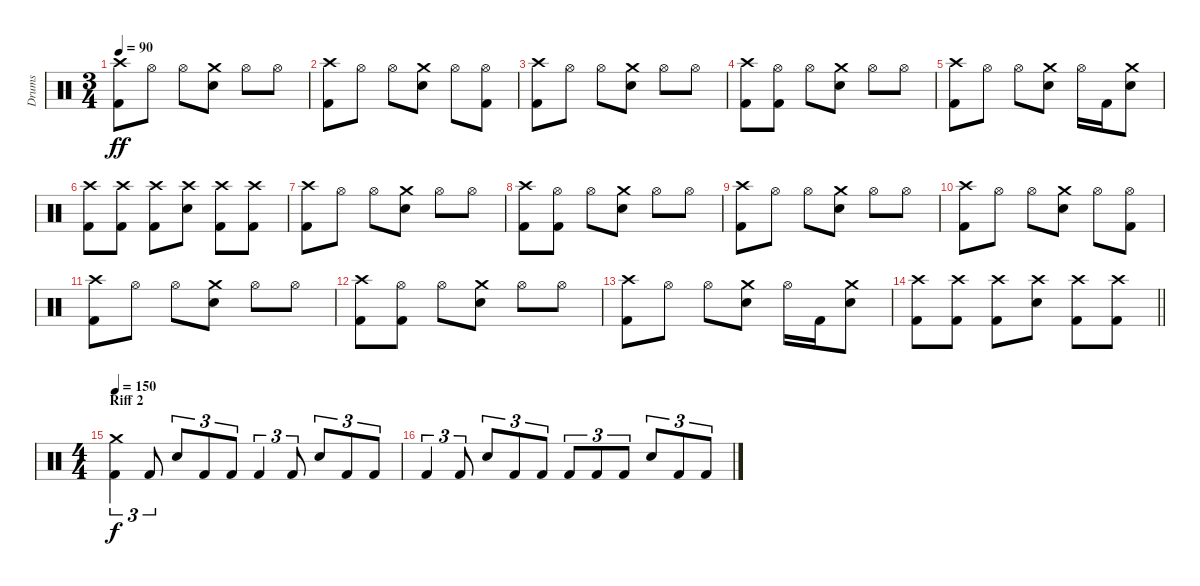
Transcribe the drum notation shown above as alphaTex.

\track ("Drums" "Drums") {instrument percussion}
\staff {score}
\articulation defaults
\ts (3 4)
\tempo 90
\clef neutral
\ks c
("Crash high (hit)" "Kick (hit) 2").8{dy ff} "Hi-Hat (open)".8 "Hi-Hat (open)".8 ("Crash medium (hit)" "Electric Snare (hit)").8 "Hi-Hat (open)".8 "Hi-Hat (open)".8 |
("Crash high (hit)" "Kick (hit) 2").8 "Hi-Hat (open)".8 "Hi-Hat (open)".8 ("Crash medium (hit)" "Electric Snare (hit)").8 "Hi-Hat (open)".8 ("Hi-Hat (open)" "Kick (hit) 2").8 |
("Crash high (hit)" "Kick (hit) 2").8 "Hi-Hat (open)".8 "Hi-Hat (open)".8 ("Crash medium (hit)" "Electric Snare (hit)").8 "Hi-Hat (open)".8 "Hi-Hat (open)".8 |
("Crash high (hit)" "Kick (hit) 2").8 ("Hi-Hat (open)" "Kick (hit) 2").8 "Hi-Hat (open)".8 ("Crash medium (hit)" "Electric Snare (hit)").8 "Hi-Hat (open)".8 "Hi-Hat (open)".8 |
("Crash high (hit)" "Kick (hit) 2").8 "Hi-Hat (open)".8 "Hi-Hat (open)".8 ("Crash medium (hit)" "Electric Snare (hit)").8 "Hi-Hat (open)".16 "Kick (hit) 2".16 ("Crash medium (hit)" "Electric Snare (hit)").8 |
("Crash high (hit)" "Kick (hit) 2").8 ("Crash high (hit)" "Kick (hit) 2").8 ("Crash high (hit)" "Kick (hit) 2").8 ("Crash high (hit)" "Electric Snare (hit)").8 ("Crash high (hit)" "Kick (hit) 2").8 ("Crash high (hit)" "Kick (hit) 2").8 |
("Crash high (hit)" "Kick (hit) 2").8 "Hi-Hat (open)".8 "Hi-Hat (open)".8 ("Crash medium (hit)" "Electric Snare (hit)").8 "Hi-Hat (open)".8 "Hi-Hat (open)".8 |
("Crash high (hit)" "Kick (hit) 2").8 ("Hi-Hat (open)" "Kick (hit) 2").8 "Hi-Hat (open)".8 ("Crash medium (hit)" "Electric Snare (hit)").8 "Hi-Hat (open)".8 "Hi-Hat (open)".8 |
("Crash high (hit)" "Kick (hit) 2").8 "Hi-Hat (open)".8 "Hi-Hat (open)".8 ("Crash medium (hit)" "Electric Snare (hit)").8 "Hi-Hat (open)".8 "Hi-Hat (open)".8 |
("Crash high (hit)" "Kick (hit) 2").8 "Hi-Hat (open)".8 "Hi-Hat (open)".8 ("Crash medium (hit)" "Electric Snare (hit)").8 "Hi-Hat (open)".8 ("Hi-Hat (open)" "Kick (hit) 2").8 |
("Crash high (hit)" "Kick (hit) 2").8 "Hi-Hat (open)".8 "Hi-Hat (open)".8 ("Crash medium (hit)" "Electric Snare (hit)").8 "Hi-Hat (open)".8 "Hi-Hat (open)".8 |
("Crash high (hit)" "Kick (hit) 2").8 ("Hi-Hat (open)" "Kick (hit) 2").8 "Hi-Hat (open)".8 ("Crash medium (hit)" "Electric Snare (hit)").8 "Hi-Hat (open)".8 "Hi-Hat (open)".8 |
("Crash high (hit)" "Kick (hit) 2").8 "Hi-Hat (open)".8 "Hi-Hat (open)".8 ("Crash medium (hit)" "Electric Snare (hit)").8 "Hi-Hat (open)".16 "Kick (hit) 2".16 ("Crash medium (hit)" "Electric Snare (hit)").8 |
\barLineRight lightlight
("Crash high (hit)" "Kick (hit) 2").8 ("Crash high (hit)" "Kick (hit) 2").8 ("Crash high (hit)" "Kick (hit) 2").8 ("Crash high (hit)" "Electric Snare (hit)").8 ("Crash high (hit)" "Kick (hit) 2").8 ("Crash high (hit)" "Kick (hit) 2").8 |
\ts (4 4)
\section ("" "Riff 2")
\tempo 150
("Crash medium (hit)" "Kick (hit) 2").4{tu (3 2) dy f} "Kick (hit) 2".8{tu (3 2)} "Electric Snare (hit)".8{tu (3 2)} "Kick (hit) 2".8{tu (3 2)} "Kick (hit) 2".8{tu (3 2)} "Kick (hit) 2".4{tu (3 2)} "Kick (hit) 2".8{tu (3 2)} "Electric Snare (hit)".8{tu (3 2)} "Kick (hit) 2".8{tu (3 2)} "Kick (hit) 2".8{tu (3 2)} |
"Kick (hit) 2".4{tu (3 2)} "Kick (hit) 2".8{tu (3 2)} "Electric Snare (hit)".8{tu (3 2)} "Kick (hit) 2".8{tu (3 2)} "Kick (hit) 2".8{tu (3 2)} "Kick (hit) 2".8{tu (3 2)} "Kick (hit) 2".8{tu (3 2)} "Kick (hit) 2".8{tu (3 2)} "Electric Snare (hit)".8{tu (3 2)} "Kick (hit) 2".8{tu (3 2)} "Kick (hit) 2".8{tu (3 2)}
